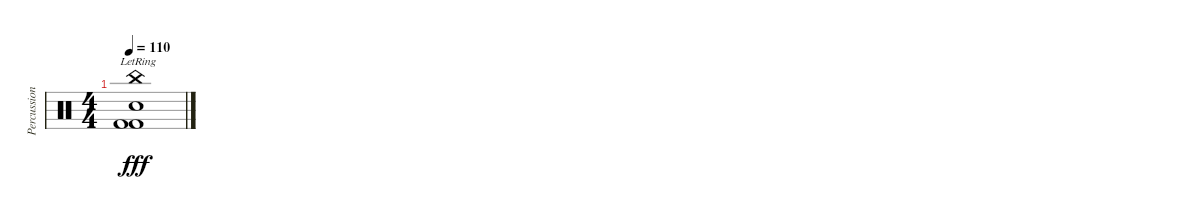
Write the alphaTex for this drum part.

\track ("Percussion" "Percussion") {instrument percussion}
\staff {score}
\articulation defaults
\ts (4 4)
\tempo 110
\clef neutral
\ks c
("China (hit)"{lr} "Snare (hit) 2" "Kick (hit) 2" "Kick (hit) 2").1{dy fff}
